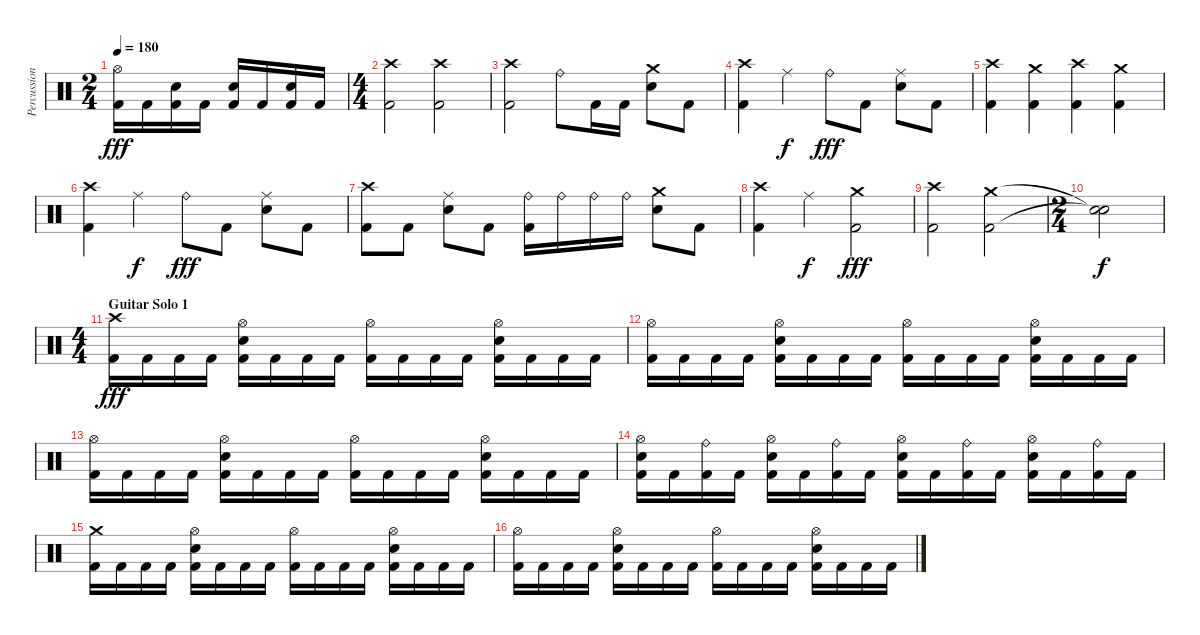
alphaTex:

\track ("Percussion" "Percussion") {instrument percussion}
\staff {score}
\articulation defaults
\ts (2 4)
\tempo 180
\clef neutral
\ks c
("Hi-Hat (open)" "Kick (hit) 2").16{dy fff} "Kick (hit) 2".16 ("Snare (hit) 2" "Kick (hit) 2").16 "Kick (hit) 2".16 ("Snare (hit) 2" "Kick (hit) 2").16 "Kick (hit) 2".16 ("Snare (hit) 2" "Kick (hit) 2").16 "Kick (hit) 2".16 |
\ts (4 4)
("Crash high (hit)" "Kick (hit) 2").2 ("Crash high (hit)" "Kick (hit) 2").2 |
("Crash high (hit)" "Kick (hit) 2").2 "Ride (bell)".8 "Kick (hit) 2".16 "Kick (hit) 2".16 ("Crash medium (hit)" "Snare (hit) 2").8 "Kick (hit) 2".8 |
("Crash high (hit)" "Kick (hit) 2").4 "Ride (middle)".4{dy f} "Ride (bell)".8{dy fff} "Kick (hit) 2".8 ("Ride (middle)" "Snare (hit) 2").8 "Kick (hit) 2".8 |
("Crash high (hit)" "Kick (hit) 2").4 ("Crash medium (hit)" "Kick (hit) 2").4 ("Crash high (hit)" "Kick (hit) 2").4 ("Crash medium (hit)" "Kick (hit) 2").4 |
("Crash high (hit)" "Kick (hit) 2").4 "Ride (middle)".4{dy f} "Ride (bell)".8{dy fff} "Kick (hit) 2".8 ("Ride (middle)" "Snare (hit) 2").8 "Kick (hit) 2".8 |
("Crash high (hit)" "Kick (hit) 2").8 "Kick (hit) 2".8 ("Ride (middle)" "Snare (hit) 2").8 "Kick (hit) 2".8 ("Ride (bell)" "Kick (hit) 2").16 "Ride (bell)".16 "Ride (bell)".16 "Ride (bell)".16 ("Crash medium (hit)" "Snare (hit) 2").8 "Kick (hit) 2".8 |
("Crash high (hit)" "Kick (hit) 2").4 "Ride (middle)".4{dy f} ("Crash medium (hit)" "Kick (hit) 2").2{dy fff} |
("Crash high (hit)" "Kick (hit) 2").2 ("Crash medium (hit)" "Kick (hit) 2").2 |
\ts (2 4)
("Snare (hit)"{t} "Snare (hit)"{t}).2{dy f} |
\ts (4 4)
\section ("" "Guitar Solo 1")
("Crash high (hit)" "Kick (hit) 2").16{dy fff} "Kick (hit) 2".16 "Kick (hit) 2".16 "Kick (hit) 2".16 ("Hi-Hat (open)" "Snare (hit) 2" "Kick (hit) 2").16 "Kick (hit) 2".16 "Kick (hit) 2".16 "Kick (hit) 2".16 ("Hi-Hat (open)" "Kick (hit) 2").16 "Kick (hit) 2".16 "Kick (hit) 2".16 "Kick (hit) 2".16 ("Hi-Hat (open)" "Snare (hit) 2" "Kick (hit) 2").16 "Kick (hit) 2".16 "Kick (hit) 2".16 "Kick (hit) 2".16 |
("Hi-Hat (open)" "Kick (hit) 2").16 "Kick (hit) 2".16 "Kick (hit) 2".16 "Kick (hit) 2".16 ("Hi-Hat (open)" "Snare (hit) 2" "Kick (hit) 2").16 "Kick (hit) 2".16 "Kick (hit) 2".16 "Kick (hit) 2".16 ("Hi-Hat (open)" "Kick (hit) 2").16 "Kick (hit) 2".16 "Kick (hit) 2".16 "Kick (hit) 2".16 ("Hi-Hat (open)" "Snare (hit) 2" "Kick (hit) 2").16 "Kick (hit) 2".16 "Kick (hit) 2".16 "Kick (hit) 2".16 |
("Hi-Hat (open)" "Kick (hit) 2").16 "Kick (hit) 2".16 "Kick (hit) 2".16 "Kick (hit) 2".16 ("Hi-Hat (open)" "Snare (hit) 2" "Kick (hit) 2").16 "Kick (hit) 2".16 "Kick (hit) 2".16 "Kick (hit) 2".16 ("Hi-Hat (open)" "Kick (hit) 2").16 "Kick (hit) 2".16 "Kick (hit) 2".16 "Kick (hit) 2".16 ("Hi-Hat (open)" "Snare (hit) 2" "Kick (hit) 2").16 "Kick (hit) 2".16 "Kick (hit) 2".16 "Kick (hit) 2".16 |
("Hi-Hat (open)" "Snare (hit) 2" "Kick (hit) 2").16 "Kick (hit) 2".16 ("Ride (bell)" "Kick (hit) 2").16 "Kick (hit) 2".16 ("Hi-Hat (open)" "Snare (hit) 2" "Kick (hit) 2").16 "Kick (hit) 2".16 ("Ride (bell)" "Kick (hit) 2").16 "Kick (hit) 2".16 ("Hi-Hat (open)" "Snare (hit) 2" "Kick (hit) 2").16 "Kick (hit) 2".16 ("Ride (bell)" "Kick (hit) 2").16 "Kick (hit) 2".16 ("Hi-Hat (open)" "Snare (hit) 2" "Kick (hit) 2").16 "Kick (hit) 2".16 ("Ride (bell)" "Kick (hit) 2").16 "Kick (hit) 2".16 |
("Crash medium (hit)" "Kick (hit) 2").16 "Kick (hit) 2".16 "Kick (hit) 2".16 "Kick (hit) 2".16 ("Hi-Hat (open)" "Snare (hit) 2" "Kick (hit) 2").16 "Kick (hit) 2".16 "Kick (hit) 2".16 "Kick (hit) 2".16 ("Hi-Hat (open)" "Kick (hit) 2").16 "Kick (hit) 2".16 "Kick (hit) 2".16 "Kick (hit) 2".16 ("Hi-Hat (open)" "Snare (hit) 2" "Kick (hit) 2").16 "Kick (hit) 2".16 "Kick (hit) 2".16 "Kick (hit) 2".16 |
("Hi-Hat (open)" "Kick (hit) 2").16 "Kick (hit) 2".16 "Kick (hit) 2".16 "Kick (hit) 2".16 ("Hi-Hat (open)" "Snare (hit) 2" "Kick (hit) 2").16 "Kick (hit) 2".16 "Kick (hit) 2".16 "Kick (hit) 2".16 ("Hi-Hat (open)" "Kick (hit) 2").16 "Kick (hit) 2".16 "Kick (hit) 2".16 "Kick (hit) 2".16 ("Hi-Hat (open)" "Snare (hit) 2" "Kick (hit) 2").16 "Kick (hit) 2".16 "Kick (hit) 2".16 "Kick (hit) 2".16
